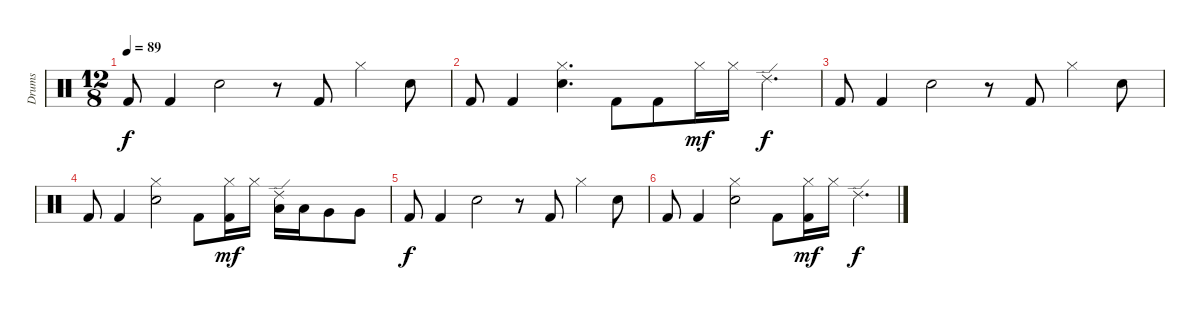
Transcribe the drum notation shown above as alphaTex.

\track ("Drums" "Drums") {instrument percussion}
\staff {score}
\articulation defaults
\ts (12 8)
\tempo 89
\clef neutral
\ks c "Kick (hit) 2".8{dy f} "Kick (hit) 2".4 "Electric Snare (hit)".2
r.8 "Kick (hit) 2".8 "Hi-Hat (closed)".4 "Snare (hit) 2".8 |
"Kick (hit) 2".8 "Kick (hit) 2".4 ("Snare (hit) 2" "Hi-Hat (closed)").4{d} "Kick (hit) 2".8 "Kick (hit) 2".8 "Hi-Hat (closed)".16{dy mf} "Hi-Hat (closed)".16 "Ride (edge) 2".4{d dy f} |
"Kick (hit) 2".8 "Kick (hit) 2".4 "Electric Snare (hit)".2 r.8 "Kick (hit) 2".8 "Hi-Hat (closed)".4 "Snare (hit) 2".8 |
"Kick (hit) 2".8 "Kick (hit) 2".4 ("Hi-Hat (closed)" "Snare (hit) 2").2 "Kick (hit) 2".8 ("Hi-Hat (closed)" "Kick (hit) 2").16{dy mf} "Hi-Hat (closed)".16 ("Low Floor Tom (hit)" "Ride (edge) 2").16 "Low Floor Tom (hit)".16 "Very Low Tom (hit)".8 "Very Low Tom (hit)".8 |
"Kick (hit) 2".8{dy f} "Kick (hit) 2".4 "Electric Snare (hit)".2 r.8 "Kick (hit) 2".8 "Hi-Hat (closed)".4 "Snare (hit) 2".8 |
"Kick (hit) 2".8 "Kick (hit) 2".4 ("Hi-Hat (closed)" "Snare (hit) 2").2 "Kick (hit) 2".8 ("Hi-Hat (closed)" "Kick (hit) 2").16{dy mf} "Hi-Hat (closed)".16 "Ride (edge) 2".4{d dy f}
